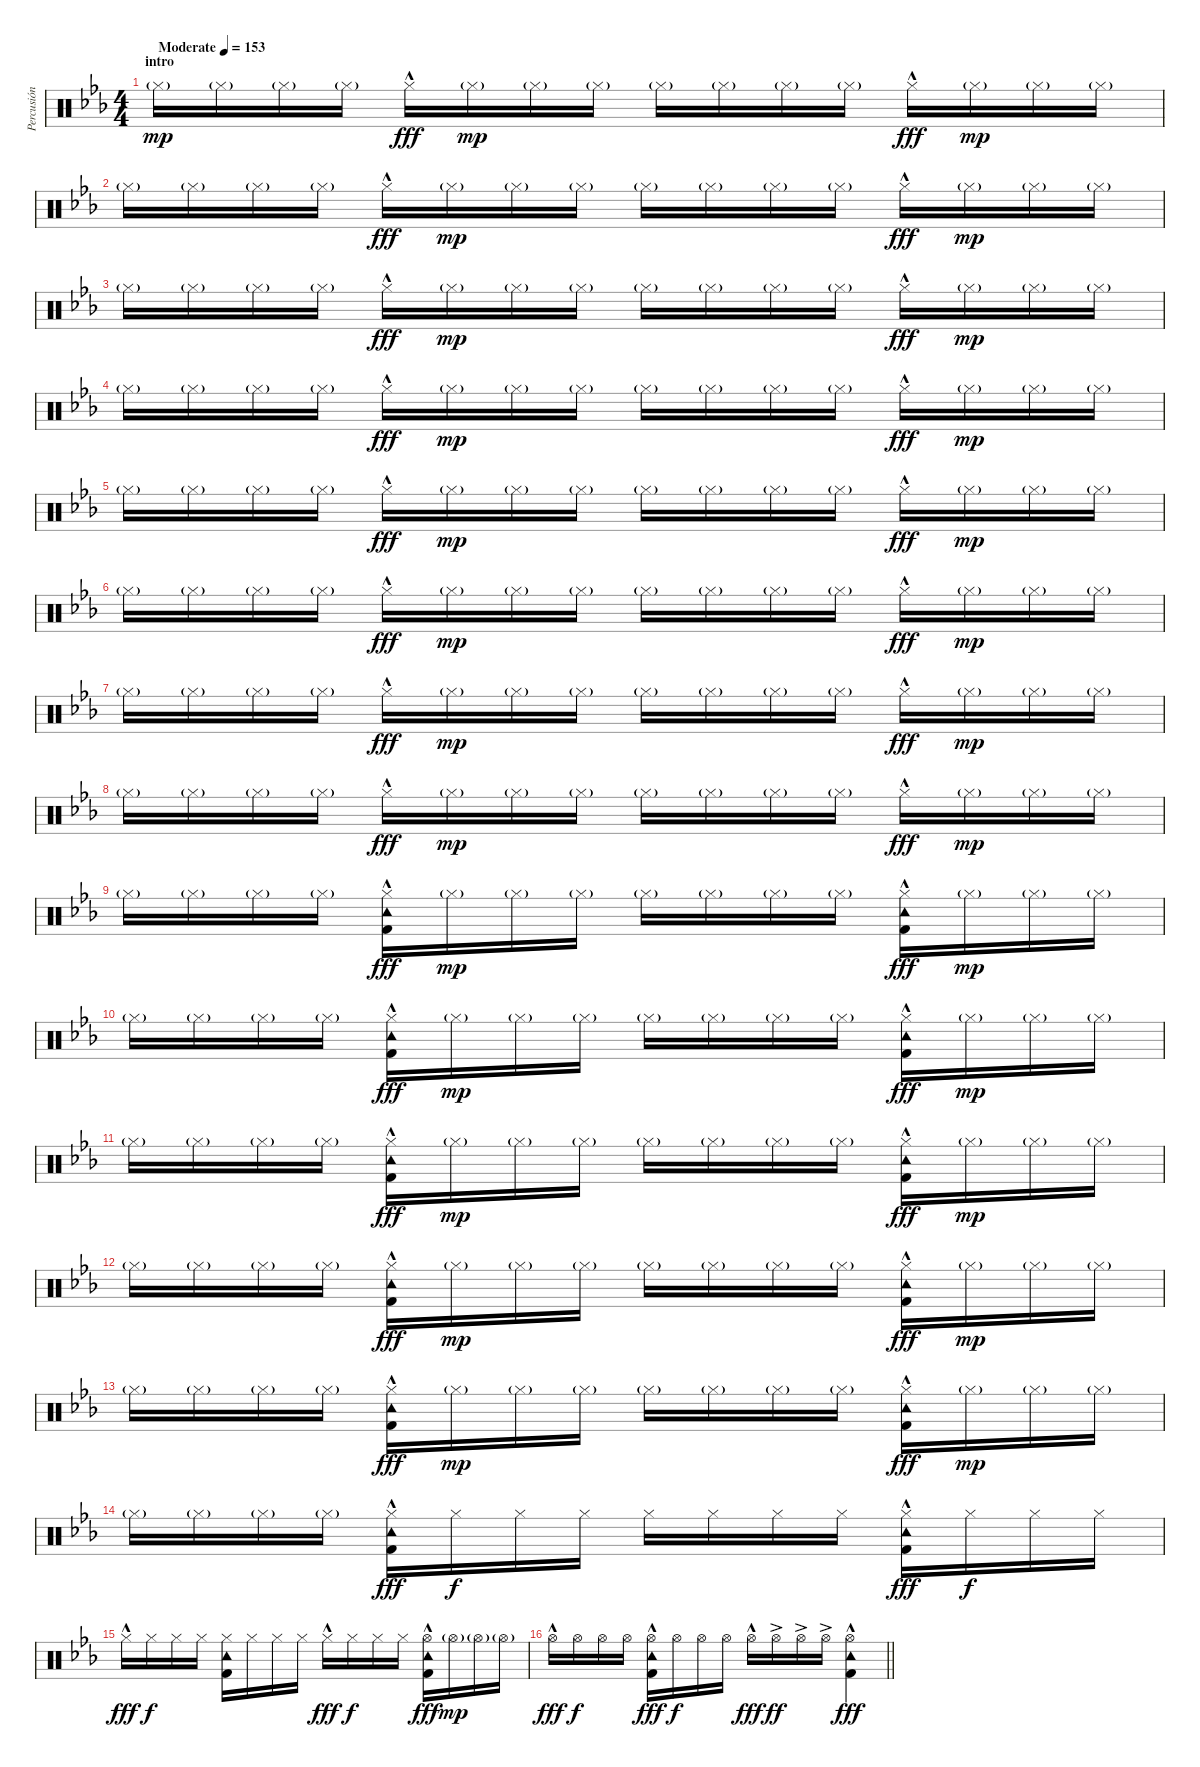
\track ("Percusión" "Percusión") {instrument percussion}
\staff {score}
\articulation defaults
\ts (4 4)
\section ("" "intro")
\tempo (153 "Moderate")
\clef neutral
\ks eb "Hi-Hat (closed)"{g}.16{dy mp} "Hi-Hat (closed)"{g}.16 "Hi-Hat (closed)"{g}.16 "Hi-Hat (closed)"{g}.16 "Hi-Hat (closed)"{hac}.16{dy fff} "Hi-Hat (closed)"{g}.16{dy mp} "Hi-Hat (closed)"{g}.16 "Hi-Hat (closed)"{g}.16 "Hi-Hat (closed)"{g}.16 "Hi-Hat (closed)"{g}.16 "Hi-Hat (closed)"{g}.16 "Hi-Hat (closed)"{g}.16 "Hi-Hat (closed)"{hac}.16{dy fff} "Hi-Hat (closed)"{g}.16{dy mp} "Hi-Hat (closed)"{g}.16 "Hi-Hat (closed)"{g}.16
|
"Hi-Hat (closed)"{g}.16 "Hi-Hat (closed)"{g}.16 "Hi-Hat (closed)"{g}.16 "Hi-Hat (closed)"{g}.16 "Hi-Hat (closed)"{hac}.16{dy fff} "Hi-Hat (closed)"{g}.16{dy mp} "Hi-Hat (closed)"{g}.16 "Hi-Hat (closed)"{g}.16 "Hi-Hat (closed)"{g}.16 "Hi-Hat (closed)"{g}.16 "Hi-Hat (closed)"{g}.16 "Hi-Hat (closed)"{g}.16 "Hi-Hat (closed)"{hac}.16{dy fff} "Hi-Hat (closed)"{g}.16{dy mp} "Hi-Hat (closed)"{g}.16 "Hi-Hat (closed)"{g}.16 |
"Hi-Hat (closed)"{g}.16 "Hi-Hat (closed)"{g}.16 "Hi-Hat (closed)"{g}.16 "Hi-Hat (closed)"{g}.16 "Hi-Hat (closed)"{hac}.16{dy fff} "Hi-Hat (closed)"{g}.16{dy mp} "Hi-Hat (closed)"{g}.16 "Hi-Hat (closed)"{g}.16 "Hi-Hat (closed)"{g}.16 "Hi-Hat (closed)"{g}.16 "Hi-Hat (closed)"{g}.16 "Hi-Hat (closed)"{g}.16 "Hi-Hat (closed)"{hac}.16{dy fff} "Hi-Hat (closed)"{g}.16{dy mp} "Hi-Hat (closed)"{g}.16 "Hi-Hat (closed)"{g}.16 |
"Hi-Hat (closed)"{g}.16 "Hi-Hat (closed)"{g}.16 "Hi-Hat (closed)"{g}.16 "Hi-Hat (closed)"{g}.16 "Hi-Hat (closed)"{hac}.16{dy fff} "Hi-Hat (closed)"{g}.16{dy mp} "Hi-Hat (closed)"{g}.16 "Hi-Hat (closed)"{g}.16 "Hi-Hat (closed)"{g}.16 "Hi-Hat (closed)"{g}.16 "Hi-Hat (closed)"{g}.16 "Hi-Hat (closed)"{g}.16 "Hi-Hat (closed)"{hac}.16{dy fff} "Hi-Hat (closed)"{g}.16{dy mp} "Hi-Hat (closed)"{g}.16 "Hi-Hat (closed)"{g}.16 |
"Hi-Hat (closed)"{g}.16 "Hi-Hat (closed)"{g}.16 "Hi-Hat (closed)"{g}.16 "Hi-Hat (closed)"{g}.16 "Hi-Hat (closed)"{hac}.16{dy fff} "Hi-Hat (closed)"{g}.16{dy mp} "Hi-Hat (closed)"{g}.16 "Hi-Hat (closed)"{g}.16 "Hi-Hat (closed)"{g}.16 "Hi-Hat (closed)"{g}.16 "Hi-Hat (closed)"{g}.16 "Hi-Hat (closed)"{g}.16 "Hi-Hat (closed)"{hac}.16{dy fff} "Hi-Hat (closed)"{g}.16{dy mp} "Hi-Hat (closed)"{g}.16 "Hi-Hat (closed)"{g}.16 |
"Hi-Hat (closed)"{g}.16 "Hi-Hat (closed)"{g}.16 "Hi-Hat (closed)"{g}.16 "Hi-Hat (closed)"{g}.16 "Hi-Hat (closed)"{hac}.16{dy fff} "Hi-Hat (closed)"{g}.16{dy mp} "Hi-Hat (closed)"{g}.16 "Hi-Hat (closed)"{g}.16 "Hi-Hat (closed)"{g}.16 "Hi-Hat (closed)"{g}.16 "Hi-Hat (closed)"{g}.16 "Hi-Hat (closed)"{g}.16 "Hi-Hat (closed)"{hac}.16{dy fff} "Hi-Hat (closed)"{g}.16{dy mp} "Hi-Hat (closed)"{g}.16 "Hi-Hat (closed)"{g}.16 |
"Hi-Hat (closed)"{g}.16 "Hi-Hat (closed)"{g}.16 "Hi-Hat (closed)"{g}.16 "Hi-Hat (closed)"{g}.16 "Hi-Hat (closed)"{hac}.16{dy fff} "Hi-Hat (closed)"{g}.16{dy mp} "Hi-Hat (closed)"{g}.16 "Hi-Hat (closed)"{g}.16 "Hi-Hat (closed)"{g}.16 "Hi-Hat (closed)"{g}.16 "Hi-Hat (closed)"{g}.16 "Hi-Hat (closed)"{g}.16 "Hi-Hat (closed)"{hac}.16{dy fff} "Hi-Hat (closed)"{g}.16{dy mp} "Hi-Hat (closed)"{g}.16 "Hi-Hat (closed)"{g}.16 |
"Hi-Hat (closed)"{g}.16 "Hi-Hat (closed)"{g}.16 "Hi-Hat (closed)"{g}.16 "Hi-Hat (closed)"{g}.16 "Hi-Hat (closed)"{hac}.16{dy fff} "Hi-Hat (closed)"{g}.16{dy mp} "Hi-Hat (closed)"{g}.16 "Hi-Hat (closed)"{g}.16 "Hi-Hat (closed)"{g}.16 "Hi-Hat (closed)"{g}.16 "Hi-Hat (closed)"{g}.16 "Hi-Hat (closed)"{g}.16 "Hi-Hat (closed)"{hac}.16{dy fff} "Hi-Hat (closed)"{g}.16{dy mp} "Hi-Hat (closed)"{g}.16 "Hi-Hat (closed)"{g}.16 |
"Hi-Hat (closed)"{g}.16 "Hi-Hat (closed)"{g}.16 "Hi-Hat (closed)"{g}.16 "Hi-Hat (closed)"{g}.16 ("Tambourine (hit)" "Hi-Hat (closed)"{hac} "Kick (hit) 2").16{dy fff} "Hi-Hat (closed)"{g}.16{dy mp} "Hi-Hat (closed)"{g}.16 "Hi-Hat (closed)"{g}.16 "Hi-Hat (closed)"{g}.16 "Hi-Hat (closed)"{g}.16 "Hi-Hat (closed)"{g}.16 "Hi-Hat (closed)"{g}.16 ("Tambourine (hit)" "Hi-Hat (closed)"{hac} "Kick (hit) 2").16{dy fff} "Hi-Hat (closed)"{g}.16{dy mp} "Hi-Hat (closed)"{g}.16 "Hi-Hat (closed)"{g}.16 |
"Hi-Hat (closed)"{g}.16 "Hi-Hat (closed)"{g}.16 "Hi-Hat (closed)"{g}.16 "Hi-Hat (closed)"{g}.16 ("Tambourine (hit)" "Hi-Hat (closed)"{hac} "Kick (hit) 2").16{dy fff} "Hi-Hat (closed)"{g}.16{dy mp} "Hi-Hat (closed)"{g}.16 "Hi-Hat (closed)"{g}.16 "Hi-Hat (closed)"{g}.16 "Hi-Hat (closed)"{g}.16 "Hi-Hat (closed)"{g}.16 "Hi-Hat (closed)"{g}.16 ("Tambourine (hit)" "Hi-Hat (closed)"{hac} "Kick (hit) 2").16{dy fff} "Hi-Hat (closed)"{g}.16{dy mp} "Hi-Hat (closed)"{g}.16 "Hi-Hat (closed)"{g}.16 |
"Hi-Hat (closed)"{g}.16 "Hi-Hat (closed)"{g}.16 "Hi-Hat (closed)"{g}.16 "Hi-Hat (closed)"{g}.16 ("Tambourine (hit)" "Hi-Hat (closed)"{hac} "Kick (hit) 2").16{dy fff} "Hi-Hat (closed)"{g}.16{dy mp} "Hi-Hat (closed)"{g}.16 "Hi-Hat (closed)"{g}.16 "Hi-Hat (closed)"{g}.16 "Hi-Hat (closed)"{g}.16 "Hi-Hat (closed)"{g}.16 "Hi-Hat (closed)"{g}.16 ("Tambourine (hit)" "Hi-Hat (closed)"{hac} "Kick (hit) 2").16{dy fff} "Hi-Hat (closed)"{g}.16{dy mp} "Hi-Hat (closed)"{g}.16 "Hi-Hat (closed)"{g}.16 |
"Hi-Hat (closed)"{g}.16 "Hi-Hat (closed)"{g}.16 "Hi-Hat (closed)"{g}.16 "Hi-Hat (closed)"{g}.16 ("Tambourine (hit)" "Hi-Hat (closed)"{hac} "Kick (hit) 2").16{dy fff} "Hi-Hat (closed)"{g}.16{dy mp} "Hi-Hat (closed)"{g}.16 "Hi-Hat (closed)"{g}.16 "Hi-Hat (closed)"{g}.16 "Hi-Hat (closed)"{g}.16 "Hi-Hat (closed)"{g}.16 "Hi-Hat (closed)"{g}.16 ("Tambourine (hit)" "Hi-Hat (closed)"{hac} "Kick (hit) 2").16{dy fff} "Hi-Hat (closed)"{g}.16{dy mp} "Hi-Hat (closed)"{g}.16 "Hi-Hat (closed)"{g}.16 |
"Hi-Hat (closed)"{g}.16 "Hi-Hat (closed)"{g}.16 "Hi-Hat (closed)"{g}.16 "Hi-Hat (closed)"{g}.16 ("Tambourine (hit)" "Hi-Hat (closed)"{hac} "Kick (hit) 2").16{dy fff} "Hi-Hat (closed)"{g}.16{dy mp} "Hi-Hat (closed)"{g}.16 "Hi-Hat (closed)"{g}.16 "Hi-Hat (closed)"{g}.16 "Hi-Hat (closed)"{g}.16 "Hi-Hat (closed)"{g}.16 "Hi-Hat (closed)"{g}.16 ("Tambourine (hit)" "Hi-Hat (closed)"{hac} "Kick (hit) 2").16{dy fff} "Hi-Hat (closed)"{g}.16{dy mp} "Hi-Hat (closed)"{g}.16 "Hi-Hat (closed)"{g}.16 |
"Hi-Hat (closed)"{g}.16 "Hi-Hat (closed)"{g}.16 "Hi-Hat (closed)"{g}.16 "Hi-Hat (closed)"{g}.16 ("Tambourine (hit)" "Hi-Hat (closed)"{hac} "Kick (hit) 2").16{dy fff} "Hi-Hat (closed)".16{dy f} "Hi-Hat (closed)".16 "Hi-Hat (closed)".16 "Hi-Hat (closed)".16 "Hi-Hat (closed)".16 "Hi-Hat (closed)".16 "Hi-Hat (closed)".16 ("Tambourine (hit)" "Hi-Hat (closed)"{hac} "Kick (hit) 2").16{dy fff} "Hi-Hat (closed)".16{dy f} "Hi-Hat (closed)".16 "Hi-Hat (closed)".16 |
"Hi-Hat (closed)"{hac}.16{dy fff} "Hi-Hat (closed)".16{dy f} "Hi-Hat (closed)".16 "Hi-Hat (closed)".16 ("Tambourine (hit)" "Hi-Hat (closed)" "Kick (hit) 2").16 "Hi-Hat (closed)".16 "Hi-Hat (closed)".16 "Hi-Hat (closed)".16 "Hi-Hat (closed)"{hac}.16{dy fff} "Hi-Hat (closed)".16{dy f} "Hi-Hat (closed)".16 "Hi-Hat (closed)".16 ("Tambourine (hit)" "Hi-Hat (open)"{hac} "Kick (hit) 2").16{dy fff} "Hi-Hat (open)"{g}.16{dy mp} "Hi-Hat (open)"{g}.16 "Hi-Hat (open)"{g}.16 |
\barLineRight lightlight "Hi-Hat (open)"{hac}.16{dy fff} "Hi-Hat (open)".16{dy f} "Hi-Hat (open)".16 "Hi-Hat (open)".16
("Tambourine (hit)" "Hi-Hat (open)"{hac} "Kick (hit) 2").16{dy fff} "Hi-Hat (open)".16{dy f} "Hi-Hat (open)".16 "Hi-Hat (open)".16 "Hi-Hat (open)"{hac}.16{dy fff} "Hi-Hat (open)"{ac}.16{dy ff} "Hi-Hat (open)"{ac}.16 "Hi-Hat (open)"{ac}.16 ("Tambourine (hit)" "Hi-Hat (open)"{hac} "Kick (hit) 2").4{dy fff}
